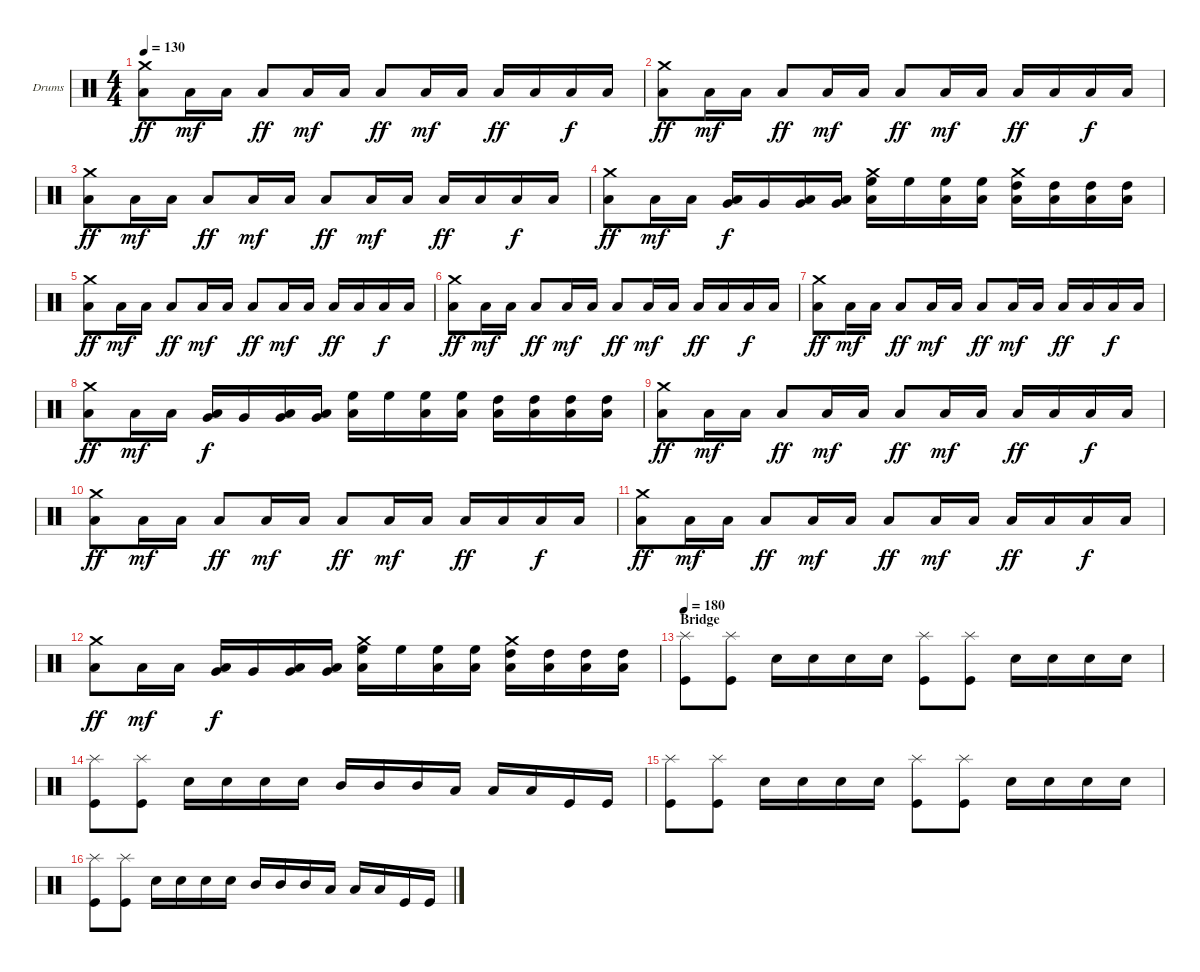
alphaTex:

\defaultSystemsLayout 4
\bracketExtendMode groupsimilarinstruments
\firstSystemTrackNameOrientation horizontal
\otherSystemsTrackNameOrientation horizontal
\track ("Ventor" "Drums") {instrument percussion}
\staff {score}
\articulation defaults
\ts (4 4)
\tempo 130
\clef neutral
\scale
0.5
\ks c
("Low Tom (hit)" "Crash medium (hit)").8{dy ff} "Low Tom (hit)".16{dy mf} "Low Tom (hit)".16 "Low Tom (hit)".8{dy ff} "Low Tom (hit)".16{dy mf} "Low Tom (hit)".16 "Low Tom (hit)".8{dy ff} "Low Tom (hit)".16{dy mf} "Low Tom (hit)".16 "Low Tom (hit)".16{dy ff} "Low Tom (hit)".16 "Low Tom (hit)".16{dy f} "Low Tom (hit)".16 |
\scale
0.5 ("Low Tom (hit)" "Crash medium (hit)").8{dy ff} "Low Tom (hit)".16{dy mf} "Low Tom (hit)".16 "Low Tom (hit)".8{dy ff} "Low Tom (hit)".16{dy mf} "Low Tom (hit)".16 "Low Tom (hit)".8{dy ff} "Low Tom (hit)".16{dy mf} "Low Tom (hit)".16 "Low Tom (hit)".16{dy ff} "Low Tom (hit)".16 "Low Tom (hit)".16{dy f} "Low Tom (hit)".16 |
\scale
0.5 ("Low Tom (hit)" "Crash medium (hit)").8{dy ff} "Low Tom (hit)".16{dy mf} "Low Tom (hit)".16 "Low Tom (hit)".8{dy ff} "Low Tom (hit)".16{dy mf} "Low Tom (hit)".16 "Low Tom (hit)".8{dy ff} "Low Tom (hit)".16{dy mf} "Low Tom (hit)".16 "Low Tom (hit)".16{dy ff} "Low Tom (hit)".16 "Low Tom (hit)".16{dy f} "Low Tom (hit)".16 |
\scale
0.5 ("Low Tom (hit)" "Crash medium (hit)").8{dy ff} "Low Tom (hit)".16{dy mf} "Low Tom (hit)".16 ("Low Tom (hit)" "Very Low Tom (hit)").16{dy f} "Very Low Tom (hit)".16 ("Low Tom (hit)" "Very Low Tom (hit)").16 ("Low Tom (hit)" "Very Low Tom (hit)").16 ("Low Tom (hit)" "High Floor Tom (hit)" "Crash medium (hit)").16 "High Floor Tom (hit)".16 ("Low Tom (hit)" "High Floor Tom (hit)").16 ("Low Tom (hit)" "High Floor Tom (hit)").16 ("Low Tom (hit)" "High Tom (hit)" "Crash medium (hit)").16 ("Low Tom (hit)" "High Tom (hit)").16 ("Low Tom (hit)" "High Tom (hit)").16 ("Low Tom (hit)" "High Tom (hit)").16 |
\scale
0.5 ("Low Tom (hit)" "Crash medium (hit)").8{dy ff} "Low Tom (hit)".16{dy mf} "Low Tom (hit)".16 "Low Tom (hit)".8{dy ff} "Low Tom (hit)".16{dy mf} "Low Tom (hit)".16 "Low Tom (hit)".8{dy ff} "Low Tom (hit)".16{dy mf} "Low Tom (hit)".16 "Low Tom (hit)".16{dy ff} "Low Tom (hit)".16 "Low Tom (hit)".16{dy f} "Low Tom (hit)".16 |
\scale
0.5 ("Low Tom (hit)" "Crash medium (hit)").8{dy ff} "Low Tom (hit)".16{dy mf} "Low Tom (hit)".16 "Low Tom (hit)".8{dy ff} "Low Tom (hit)".16{dy mf} "Low Tom (hit)".16 "Low Tom (hit)".8{dy ff} "Low Tom (hit)".16{dy mf} "Low Tom (hit)".16 "Low Tom (hit)".16{dy ff} "Low Tom (hit)".16 "Low Tom (hit)".16{dy f} "Low Tom (hit)".16 |
\scale
0.5 ("Low Tom (hit)" "Crash medium (hit)").8{dy ff} "Low Tom (hit)".16{dy mf} "Low Tom (hit)".16 "Low Tom (hit)".8{dy ff} "Low Tom (hit)".16{dy mf} "Low Tom (hit)".16 "Low Tom (hit)".8{dy ff} "Low Tom (hit)".16{dy mf} "Low Tom (hit)".16 "Low Tom (hit)".16{dy ff} "Low Tom (hit)".16 "Low Tom (hit)".16{dy f} "Low Tom (hit)".16 |
\scale
0.5 ("Low Tom (hit)" "Crash medium (hit)").8{dy ff} "Low Tom (hit)".16{dy mf} "Low Tom (hit)".16 ("Low Tom (hit)" "Very Low Tom (hit)").16{dy f} "Very Low Tom (hit)".16 ("Low Tom (hit)" "Very Low Tom (hit)").16 ("Low Tom (hit)" "Very Low Tom (hit)").16 ("Low Tom (hit)" "High Floor Tom (hit)").16 "High Floor Tom (hit)".16 ("Low Tom (hit)" "High Floor Tom (hit)").16 ("Low Tom (hit)" "High Floor Tom (hit)").16 ("Low Tom (hit)" "High Tom (hit)").16 ("Low Tom (hit)" "High Tom (hit)").16 ("Low Tom (hit)" "High Tom (hit)").16 ("Low Tom (hit)" "High Tom (hit)").16 |
\scale
0.5 ("Low Tom (hit)" "Crash medium (hit)").8{dy ff} "Low Tom (hit)".16{dy mf} "Low Tom (hit)".16 "Low Tom (hit)".8{dy ff} "Low Tom (hit)".16{dy mf} "Low Tom (hit)".16 "Low Tom (hit)".8{dy ff} "Low Tom (hit)".16{dy mf} "Low Tom (hit)".16 "Low Tom (hit)".16{dy ff} "Low Tom (hit)".16 "Low Tom (hit)".16{dy f} "Low Tom (hit)".16 |
\scale
0.5 ("Low Tom (hit)" "Crash medium (hit)").8{dy ff} "Low Tom (hit)".16{dy mf} "Low Tom (hit)".16 "Low Tom (hit)".8{dy ff} "Low Tom (hit)".16{dy mf} "Low Tom (hit)".16 "Low Tom (hit)".8{dy ff} "Low Tom (hit)".16{dy mf} "Low Tom (hit)".16 "Low Tom (hit)".16{dy ff} "Low Tom (hit)".16 "Low Tom (hit)".16{dy f} "Low Tom (hit)".16 |
\scale
0.5 ("Low Tom (hit)" "Crash medium (hit)").8{dy ff} "Low Tom (hit)".16{dy mf} "Low Tom (hit)".16 "Low Tom (hit)".8{dy ff} "Low Tom (hit)".16{dy mf} "Low Tom (hit)".16 "Low Tom (hit)".8{dy ff} "Low Tom (hit)".16{dy mf} "Low Tom (hit)".16 "Low Tom (hit)".16{dy ff} "Low Tom (hit)".16 "Low Tom (hit)".16{dy f} "Low Tom (hit)".16 |
\scale
0.5 ("Low Tom (hit)" "Crash medium (hit)").8{dy ff} "Low Tom (hit)".16{dy mf} "Low Tom (hit)".16 ("Low Tom (hit)" "Very Low Tom (hit)").16{dy f} "Very Low Tom (hit)".16 ("Low Tom (hit)" "Very Low Tom (hit)").16 ("Low Tom (hit)" "Very Low Tom (hit)").16 ("Low Tom (hit)" "High Floor Tom (hit)" "Crash medium (hit)").16 "High Floor Tom (hit)".16 ("Low Tom (hit)" "High Floor Tom (hit)").16 ("Low Tom (hit)" "High Floor Tom (hit)").16 ("Low Tom (hit)" "High Tom (hit)" "Crash medium (hit)").16 ("Low Tom (hit)" "High Tom (hit)").16 ("Low Tom (hit)" "High Tom (hit)").16 ("Low Tom (hit)" "High Tom (hit)").16 |
\section ("" "Bridge")
\tempo 180
\scale
0.5 ("Kick (hit)" "Splash (hit)").8 ("Kick (hit)" "Splash (hit)").8 "Snare (hit) 2".16 "Snare (hit) 2".16 "Snare (hit) 2".16 "Snare (hit) 2".16 ("Kick (hit)" "Splash (hit)").8 ("Kick (hit)" "Splash (hit)").8 "Snare (hit) 2".16 "Snare (hit) 2".16 "Snare (hit) 2".16 "Snare (hit) 2".16 |
\scale
0.5 ("Kick (hit)" "Splash (hit)").8 ("Kick (hit)" "Splash (hit)").8 "Snare (hit) 2".16 "Snare (hit) 2".16 "Snare (hit) 2".16 "Snare (hit) 2".16 "Mid Tom (hit)".16 "Mid Tom (hit)".16 "Mid Tom (hit)".16 "Low Tom (hit)".16 "Low Tom (hit)".16 "Low Tom (hit)".16 "Kick (hit)".16 "Kick (hit)".16 |
\scale
0.5 ("Kick (hit)" "Splash (hit)").8 ("Kick (hit)" "Splash (hit)").8 "Snare (hit) 2".16 "Snare (hit) 2".16 "Snare (hit) 2".16 "Snare (hit) 2".16 ("Kick (hit)" "Splash (hit)").8 ("Kick (hit)" "Splash (hit)").8 "Snare (hit) 2".16 "Snare (hit) 2".16 "Snare (hit) 2".16 "Snare (hit) 2".16 |
\scale
0.5 ("Kick (hit)" "Splash (hit)").8 ("Kick (hit)" "Splash (hit)").8 "Snare (hit) 2".16 "Snare (hit) 2".16 "Snare (hit) 2".16 "Snare (hit) 2".16 "Mid Tom (hit)".16 "Mid Tom (hit)".16 "Mid Tom (hit)".16 "Low Tom (hit)".16 "Low Tom (hit)".16 "Low Tom (hit)".16 "Kick (hit)".16 "Kick (hit)".16
